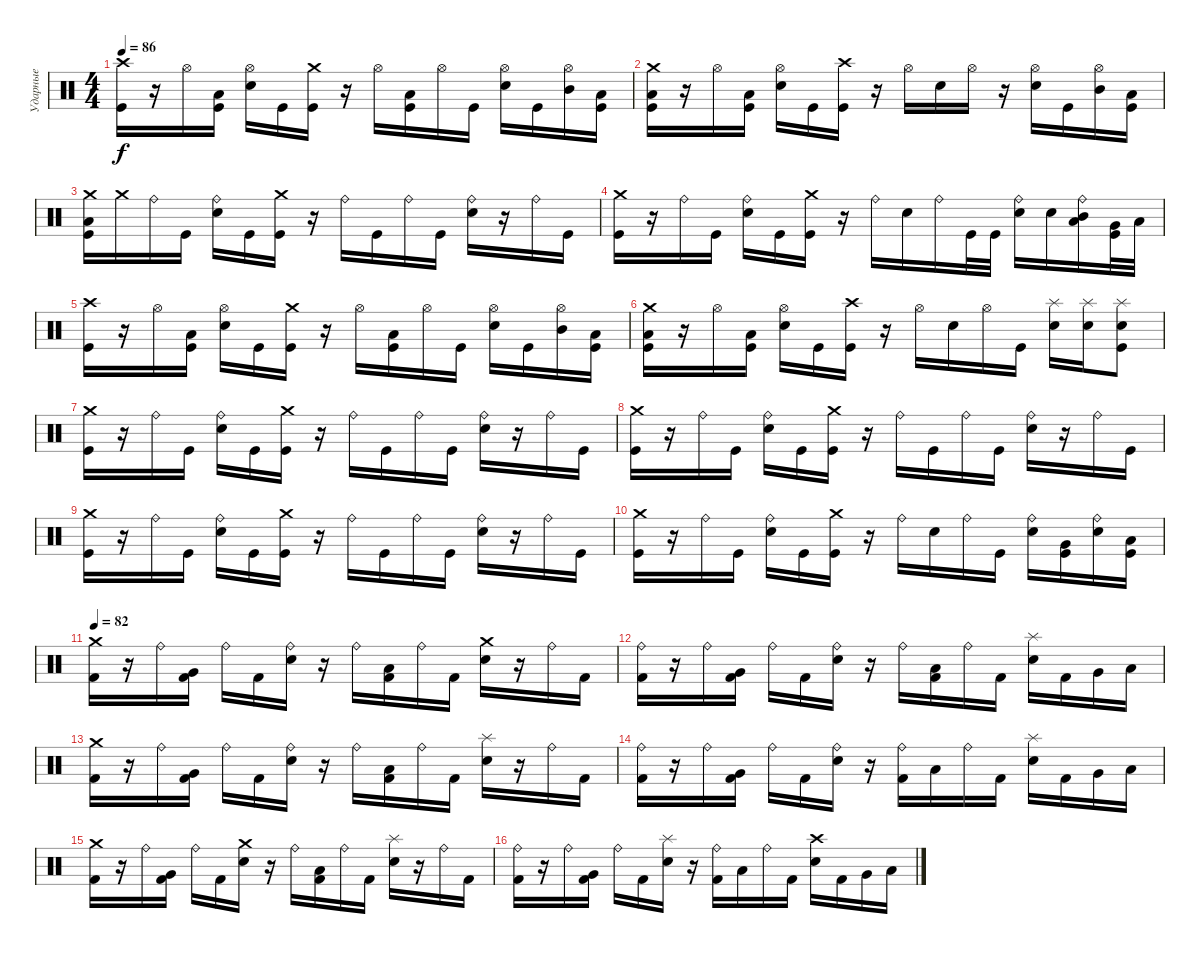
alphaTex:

\track ("Ударные" "Ударные") {instrument percussion}
\staff {score}
\articulation defaults
\ts (4 4)
\tempo 86
\clef neutral
\ks c
("Crash high (hit)" "Kick (hit)").16{dy f} r.16 "Hi-Hat (open)".16 ("Low Floor Tom (hit)" "Kick (hit)").16 ("Hi-Hat (open)" "Snare (hit) 2").16 "Kick (hit)".16 ("Crash medium (hit)" "Kick (hit)").16 r.16 "Hi-Hat (open)".16 ("Low Floor Tom (hit)" "Kick (hit)").16 "Hi-Hat (open)".16 "Kick (hit)".16 ("Hi-Hat (open)" "Snare (hit) 2").16 "Kick (hit)".16 ("Hi-Hat (open)" "Mid Tom (hit)").16 ("Low Tom (hit)" "Kick (hit)").16 |
("Crash medium (hit)" "Low Floor Tom (hit)" "Kick (hit)").16 r.16 "Hi-Hat (open)".16 ("Low Floor Tom (hit)" "Kick (hit)").16 ("Hi-Hat (open)" "Snare (hit) 2").16 "Kick (hit)".16 ("Crash high (hit)" "Kick (hit)").16 r.16 "Hi-Hat (open)".16 "Snare (hit) 2".16 "Hi-Hat (open)".16 r.16 ("Hi-Hat (open)" "Snare (hit) 2").16 "Kick (hit)".16 ("Hi-Hat (open)" "Mid Tom (hit)").16 ("Low Tom (hit)" "Kick (hit)").16 |
("Crash medium (hit)" "Low Floor Tom (hit)" "Kick (hit)").16 "Crash medium (hit)".16 "Ride (bell)".16 "Kick (hit)".16 ("Ride (bell)" "Snare (hit) 2").16 "Kick (hit)".16 ("Crash medium (hit)" "Kick (hit)").16 r.16 "Ride (bell)".16 "Kick (hit)".16 "Ride (bell)".16 "Kick (hit)".16 ("Ride (bell)" "Snare (hit) 2").16 r.16 "Ride (bell)".16 "Kick (hit)".16 |
("Crash medium (hit)" "Kick (hit)").16 r.16 "Ride (bell)".16 "Kick (hit)".16 ("Ride (bell)" "Snare (hit) 2").16 "Kick (hit)".16 ("Crash medium (hit)" "Kick (hit)").16 r.16 "Ride (bell)".16 "Snare (hit) 2".16 "Ride (bell)".16 "Kick (hit)".32 "Kick (hit)".32 ("Ride (bell)" "Snare (hit) 2").16 "Snare (hit) 2".16 ("Ride (bell)" "Low Floor Tom (hit)" "Mid Tom (hit)").16 ("Very Low Tom (hit)" "Kick (hit)").32 "Low Floor Tom (hit)".32 |
("Crash high (hit)" "Kick (hit)").16 r.16 "Hi-Hat (open)".16 ("Low Floor Tom (hit)" "Kick (hit)").16 ("Hi-Hat (open)" "Snare (hit) 2").16 "Kick (hit)".16 ("Crash medium (hit)" "Kick (hit)").16 r.16 "Hi-Hat (open)".16 ("Low Floor Tom (hit)" "Kick (hit)").16 "Hi-Hat (open)".16 "Kick (hit)".16 ("Hi-Hat (open)" "Snare (hit) 2").16 "Kick (hit)".16 ("Hi-Hat (open)" "Mid Tom (hit)").16 ("Low Tom (hit)" "Kick (hit)").16 |
("Crash medium (hit)" "Low Floor Tom (hit)" "Kick (hit)").16 r.16 "Hi-Hat (open)".16 ("Low Floor Tom (hit)" "Kick (hit)").16 ("Hi-Hat (open)" "Snare (hit) 2").16 "Kick (hit)".16 ("Crash high (hit)" "Kick (hit)").16 r.16 "Hi-Hat (open)".16 "Snare (hit) 2".16 "Hi-Hat (open)".16 "Kick (hit)".16 ("Splash (hit)" "Snare (hit) 2").16 ("Splash (hit)" "Snare (hit) 2").16 ("Splash (hit)" "Snare (hit) 2" "Kick (hit)").8 |
("Crash medium (hit)" "Kick (hit)").16 r.16 "Ride (bell)".16 "Kick (hit)".16 ("Ride (bell)" "Snare (hit) 2").16 "Kick (hit)".16 ("Crash medium (hit)" "Kick (hit)").16 r.16 "Ride (bell)".16 "Kick (hit)".16 "Ride (bell)".16 "Kick (hit)".16 ("Ride (bell)" "Snare (hit) 2").16 r.16 "Ride (bell)".16 "Kick (hit)".16 |
("Crash medium (hit)" "Kick (hit)").16 r.16 "Ride (bell)".16 "Kick (hit)".16 ("Ride (bell)" "Snare (hit) 2").16 "Kick (hit)".16 ("Crash medium (hit)" "Kick (hit)").16 r.16 "Ride (bell)".16 "Kick (hit)".16 "Ride (bell)".16 "Kick (hit)".16 ("Ride (bell)" "Snare (hit) 2").16 r.16 "Ride (bell)".16 "Kick (hit)".16 |
("Crash medium (hit)" "Kick (hit)").16 r.16 "Ride (bell)".16 "Kick (hit)".16 ("Ride (bell)" "Snare (hit) 2").16 "Kick (hit)".16 ("Crash medium (hit)" "Kick (hit)").16 r.16 "Ride (bell)".16 "Kick (hit)".16 "Ride (bell)".16 "Kick (hit)".16 ("Ride (bell)" "Snare (hit) 2").16 r.16 "Ride (bell)".16 "Kick (hit)".16 |
("Crash medium (hit)" "Kick (hit)").16 r.16 "Ride (bell)".16 "Kick (hit)".16 ("Ride (bell)" "Snare (hit) 2").16 "Kick (hit)".16 ("Crash medium (hit)" "Kick (hit)").16 r.16 "Ride (bell)".16 "Snare (hit) 2".16 "Ride (bell)".16 "Kick (hit)".16 ("Ride (bell)" "Snare (hit) 2").16 ("Very Low Tom (hit)" "Kick (hit)").16 ("Ride (bell)" "Snare (hit) 2").16 ("Low Floor Tom (hit)" "Kick (hit)").16 |
\tempo 82
("Crash medium (hit)" "Kick (hit) 2").16 r.16 "Ride (bell)".16 ("Very Low Tom (hit)" "Kick (hit) 2").16 "Ride (bell)".16 "Kick (hit) 2".16 ("Ride (bell)" "Snare (hit) 2").16 r.16 "Ride (bell)".16 ("Low Floor Tom (hit)" "Kick (hit) 2").16 "Ride (bell)".16 "Kick (hit) 2".16 ("Crash medium (hit)" "Snare (hit) 2").16 r.16 "Ride (bell)".16 "Kick (hit) 2".16 |
("Ride (bell)" "Kick (hit) 2").16 r.16 "Ride (bell)".16 ("Very Low Tom (hit)" "Kick (hit) 2").16 "Ride (bell)".16 "Kick (hit) 2".16 ("Ride (bell)" "Snare (hit) 2").16 r.16 "Ride (bell)".16 ("Low Floor Tom (hit)" "Kick (hit) 2").16 "Ride (bell)".16 "Kick (hit) 2".16 ("Splash (hit)" "Snare (hit) 2").16 "Kick (hit) 2".16 "Very Low Tom (hit)".16 "Low Floor Tom (hit)".16 |
("Crash medium (hit)" "Kick (hit) 2").16 r.16 "Ride (bell)".16 ("Very Low Tom (hit)" "Kick (hit) 2").16 "Ride (bell)".16 "Kick (hit) 2".16 ("Ride (bell)" "Snare (hit) 2").16 r.16 "Ride (bell)".16 ("Low Floor Tom (hit)" "Kick (hit) 2").16 "Ride (bell)".16 "Kick (hit) 2".16 ("Splash (hit)" "Snare (hit) 2").16 r.16 "Ride (bell)".16 "Kick (hit) 2".16 |
("Ride (bell)" "Kick (hit) 2").16 r.16 "Ride (bell)".16 ("Very Low Tom (hit)" "Kick (hit) 2").16 "Ride (bell)".16 "Kick (hit) 2".16 ("Ride (bell)" "Snare (hit) 2").16 r.16 ("Ride (bell)" "Kick (hit) 2").16 "Low Floor Tom (hit)".16 "Ride (bell)".16 "Kick (hit) 2".16 ("Splash (hit)" "Snare (hit) 2").16 "Kick (hit) 2".16 "Very Low Tom (hit)".16 "Low Floor Tom (hit)".16 |
("Crash medium (hit)" "Kick (hit) 2").16 r.16 "Ride (bell)".16 ("Very Low Tom (hit)" "Kick (hit) 2").16 "Ride (bell)".16 "Kick (hit) 2".16 ("Crash medium (hit)" "Snare (hit) 2").16 r.16 "Ride (bell)".16 ("Low Floor Tom (hit)" "Kick (hit) 2").16 "Ride (bell)".16 "Kick (hit) 2".16 ("Splash (hit)" "Snare (hit) 2").16 r.16 "Ride (bell)".16 "Kick (hit) 2".16 |
("Ride (bell)" "Kick (hit) 2").16 r.16 "Ride (bell)".16 ("Very Low Tom (hit)" "Kick (hit) 2").16 "Ride (bell)".16 "Kick (hit) 2".16 ("Splash (hit)" "Snare (hit) 2").16 r.16 ("Ride (bell)" "Kick (hit) 2").16 "Low Floor Tom (hit)".16 "Ride (bell)".16 "Kick (hit) 2".16 ("Crash high (hit)" "Snare (hit) 2").16 "Kick (hit) 2".16 "Very Low Tom (hit)".16 "Low Floor Tom (hit)".16
